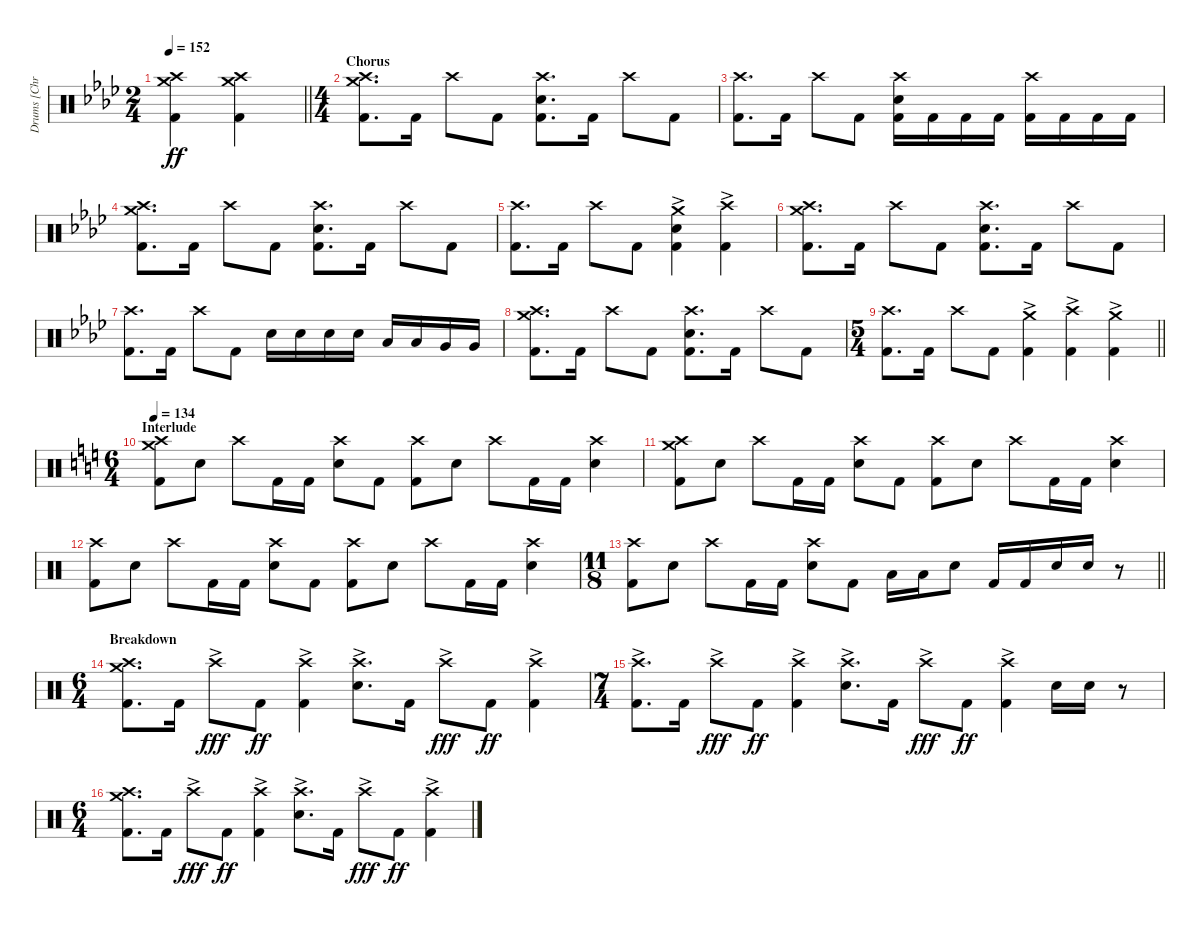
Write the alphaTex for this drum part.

\track ("Drums [Chris Hornbrook]" "Drums [Chr") {instrument percussion}
\staff {score}
\articulation defaults
\ts (2 4)
\tempo 152
\clef neutral
\barLineRight lightlight
\ks fminor
("Crash medium (hit)" "Crash high (hit)" "Kick (hit) 2").4{dy ff} ("Crash medium (hit)" "Crash high (hit)" "Kick (hit) 2").4 |
\ts (4 4)
\section ("" "Chorus")
("Crash medium (hit)" "Crash high (hit)" "Kick (hit) 2").8{d} "Kick (hit) 2".16 "Crash high (hit)".8 "Kick (hit) 2".8 ("Crash high (hit)" "Electric Snare (hit)" "Kick (hit) 2").8{d} "Kick (hit) 2".16 "Crash high (hit)".8 "Kick (hit) 2".8 |
("Crash high (hit)" "Kick (hit) 2").8{d} "Kick (hit) 2".16 "Crash high (hit)".8 "Kick (hit) 2".8 ("Crash high (hit)" "Electric Snare (hit)" "Kick (hit) 2").16 "Kick (hit) 2".16 "Kick (hit) 2".16 "Kick (hit) 2".16 ("Crash high (hit)" "Kick (hit) 2").16 "Kick (hit) 2".16 "Kick (hit) 2".16 "Kick (hit) 2".16 |
("Crash medium (hit)" "Crash high (hit)" "Kick (hit) 2").8{d} "Kick (hit) 2".16 "Crash high (hit)".8 "Kick (hit) 2".8 ("Crash high (hit)" "Electric Snare (hit)" "Kick (hit) 2").8{d} "Kick (hit) 2".16 "Crash high (hit)".8 "Kick (hit) 2".8 |
("Crash high (hit)" "Kick (hit) 2").8{d} "Kick (hit) 2".16 "Crash high (hit)".8 "Kick (hit) 2".8 ("Crash medium (hit)"{ac} "Electric Snare (hit)" "Kick (hit) 2").4 ("Crash high (hit)"{ac} "Kick (hit) 2").4 |
("Crash medium (hit)" "Crash high (hit)" "Kick (hit) 2").8{d} "Kick (hit) 2".16 "Crash high (hit)".8 "Kick (hit) 2".8 ("Crash high (hit)" "Electric Snare (hit)" "Kick (hit) 2").8{d} "Kick (hit) 2".16 "Crash high (hit)".8 "Kick (hit) 2".8 |
("Crash high (hit)" "Kick (hit) 2").8{d} "Kick (hit) 2".16 "Crash high (hit)".8 "Kick (hit) 2".8 "Electric Snare (hit)".16 "Electric Snare (hit)".16 "Electric Snare (hit)".16 "Electric Snare (hit)".16 "Low Tom (hit)".16 "Low Tom (hit)".16 "Very Low Tom (hit)".16 "Very Low Tom (hit)".16 |
("Crash medium (hit)" "Crash high (hit)" "Kick (hit) 2").8{d} "Kick (hit) 2".16 "Crash high (hit)".8 "Kick (hit) 2".8 ("Crash high (hit)" "Electric Snare (hit)" "Kick (hit) 2").8{d} "Kick (hit) 2".16 "Crash high (hit)".8 "Kick (hit) 2".8 |
\ts (5 4)
\barLineRight lightlight
("Crash high (hit)" "Kick (hit) 2").8{d} "Kick (hit) 2".16 "Crash high (hit)".8 "Kick (hit) 2".8 ("Crash medium (hit)"{ac} "Kick (hit) 2").4 ("Crash high (hit)"{ac} "Kick (hit) 2").4 ("Crash medium (hit)"{ac} "Kick (hit) 2").4 |
\ts (6 4)
\section ("" "Interlude")
\tempo 134
\ks c
("Crash medium (hit)" "Crash high (hit)" "Kick (hit) 2").8 "Electric Snare (hit)".8 "Crash high (hit)".8 "Kick (hit) 2".16 "Kick (hit) 2".16 ("Crash high (hit)" "Electric Snare (hit)").8 "Kick (hit) 2".8 ("Crash high (hit)" "Kick (hit) 2").8 "Electric Snare (hit)".8 "Crash high (hit)".8 "Kick (hit) 2".16 "Kick (hit) 2".16 ("Crash high (hit)" "Electric Snare (hit)").4 |
("Crash medium (hit)" "Crash high (hit)" "Kick (hit) 2").8 "Electric Snare (hit)".8 "Crash high (hit)".8 "Kick (hit) 2".16 "Kick (hit) 2".16 ("Crash high (hit)" "Electric Snare (hit)").8 "Kick (hit) 2".8 ("Crash high (hit)" "Kick (hit) 2").8 "Electric Snare (hit)".8 "Crash high (hit)".8 "Kick (hit) 2".16 "Kick (hit) 2".16 ("Crash high (hit)" "Electric Snare (hit)").4 |
("Crash high (hit)" "Kick (hit) 2").8 "Electric Snare (hit)".8 "Crash high (hit)".8 "Kick (hit) 2".16 "Kick (hit) 2".16 ("Crash high (hit)" "Electric Snare (hit)").8 "Kick (hit) 2".8 ("Crash high (hit)" "Kick (hit) 2").8 "Electric Snare (hit)".8 "Crash high (hit)".8 "Kick (hit) 2".16 "Kick (hit) 2".16 ("Crash high (hit)" "Electric Snare (hit)").4 |
\ts (11 8)
\barLineRight lightlight
("Crash high (hit)" "Kick (hit) 2").8 "Electric Snare (hit)".8 "Crash high (hit)".8 "Kick (hit) 2".16 "Kick (hit) 2".16 ("Crash high (hit)" "Electric Snare (hit)").8 "Kick (hit) 2".8 "Low Tom (hit)".16 "Low Tom (hit)".16 "Electric Snare (hit)".8 "Kick (hit) 2".16 "Kick (hit) 2".16 "Electric Snare (hit)".16 "Electric Snare (hit)".16 r.8{volume 0} |
\ts (6 4)
\section ("" "Breakdown")
("Crash medium (hit)" "Crash high (hit)" "Kick (hit) 2").8{d volume 14} "Kick (hit) 2".16 "Crash high (hit)"{ac}.8{dy fff} "Kick (hit) 2".8{dy ff} ("Crash high (hit)"{ac} "Kick (hit) 2").4 ("Crash high (hit)"{ac} "Electric Snare (hit)").8{d} "Kick (hit) 2".16 "Crash high (hit)"{ac}.8{dy fff} "Kick (hit) 2".8{dy ff} ("Crash high (hit)"{ac} "Kick (hit) 2").4 |
\ts (7 4)
("Crash high (hit)"{ac} "Kick (hit) 2").8{d} "Kick (hit) 2".16 "Crash high (hit)"{ac}.8{dy fff} "Kick (hit) 2".8{dy ff} ("Crash high (hit)"{ac} "Kick (hit) 2").4 ("Crash high (hit)"{ac} "Electric Snare (hit)").8{d} "Kick (hit) 2".16 "Crash high (hit)"{ac}.8{dy fff} "Kick (hit) 2".8{dy ff} ("Crash high (hit)"{ac} "Kick (hit) 2").4 "Electric Snare (hit)".16 "Electric Snare (hit)".16 r.8{volume 0} |
\ts (6 4)
("Crash medium (hit)" "Crash high (hit)" "Kick (hit) 2").8{d volume 14} "Kick (hit) 2".16 "Crash high (hit)"{ac}.8{dy fff} "Kick (hit) 2".8{dy ff} ("Crash high (hit)"{ac} "Kick (hit) 2").4 ("Crash high (hit)"{ac} "Electric Snare (hit)").8{d} "Kick (hit) 2".16 "Crash high (hit)"{ac}.8{dy fff} "Kick (hit) 2".8{dy ff} ("Crash high (hit)"{ac} "Kick (hit) 2").4
